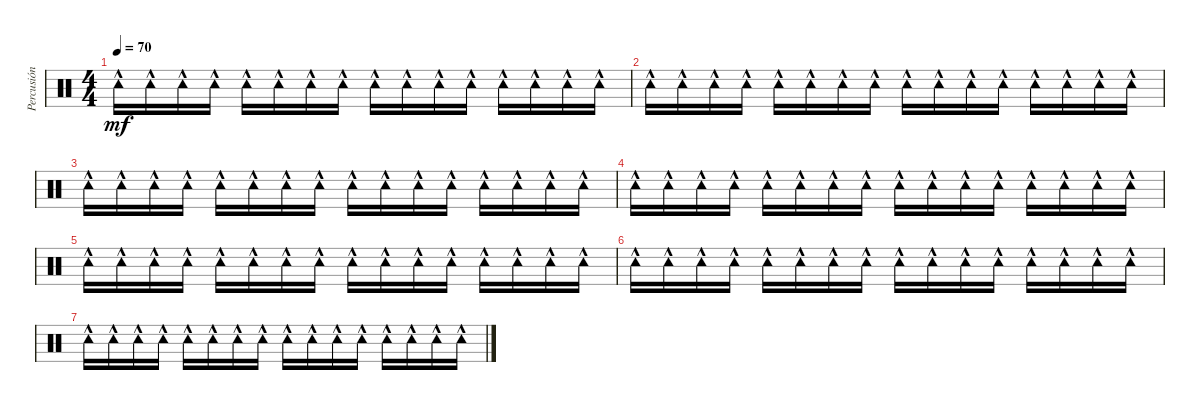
\track ("Percusión" "Percusión") {instrument percussion}
\staff {score}
\articulation defaults
\ts (4 4)
\tempo 70
\clef neutral
\ks c "Tambourine (hit)"{hac}.16{dy mf} "Tambourine (hit)"{hac}.16 "Tambourine (hit)"{hac}.16 "Tambourine (hit)"{hac}.16 "Tambourine (hit)"{hac}.16 "Tambourine (hit)"{hac}.16 "Tambourine (hit)"{hac}.16 "Tambourine (hit)"{hac}.16 "Tambourine (hit)"{hac}.16 "Tambourine (hit)"{hac}.16 "Tambourine (hit)"{hac}.16 "Tambourine (hit)"{hac}.16 "Tambourine (hit)"{hac}.16 "Tambourine (hit)"{hac}.16 "Tambourine (hit)"{hac}.16 "Tambourine (hit)"{hac}.16
|
"Tambourine (hit)"{hac}.16 "Tambourine (hit)"{hac}.16 "Tambourine (hit)"{hac}.16 "Tambourine (hit)"{hac}.16 "Tambourine (hit)"{hac}.16 "Tambourine (hit)"{hac}.16 "Tambourine (hit)"{hac}.16 "Tambourine (hit)"{hac}.16 "Tambourine (hit)"{hac}.16 "Tambourine (hit)"{hac}.16 "Tambourine (hit)"{hac}.16 "Tambourine (hit)"{hac}.16 "Tambourine (hit)"{hac}.16 "Tambourine (hit)"{hac}.16 "Tambourine (hit)"{hac}.16 "Tambourine (hit)"{hac}.16 |
"Tambourine (hit)"{hac}.16 "Tambourine (hit)"{hac}.16 "Tambourine (hit)"{hac}.16 "Tambourine (hit)"{hac}.16 "Tambourine (hit)"{hac}.16 "Tambourine (hit)"{hac}.16 "Tambourine (hit)"{hac}.16 "Tambourine (hit)"{hac}.16 "Tambourine (hit)"{hac}.16 "Tambourine (hit)"{hac}.16 "Tambourine (hit)"{hac}.16 "Tambourine (hit)"{hac}.16 "Tambourine (hit)"{hac}.16 "Tambourine (hit)"{hac}.16 "Tambourine (hit)"{hac}.16 "Tambourine (hit)"{hac}.16 |
"Tambourine (hit)"{hac}.16 "Tambourine (hit)"{hac}.16 "Tambourine (hit)"{hac}.16 "Tambourine (hit)"{hac}.16 "Tambourine (hit)"{hac}.16 "Tambourine (hit)"{hac}.16 "Tambourine (hit)"{hac}.16 "Tambourine (hit)"{hac}.16 "Tambourine (hit)"{hac}.16 "Tambourine (hit)"{hac}.16 "Tambourine (hit)"{hac}.16 "Tambourine (hit)"{hac}.16 "Tambourine (hit)"{hac}.16 "Tambourine (hit)"{hac}.16 "Tambourine (hit)"{hac}.16 "Tambourine (hit)"{hac}.16 |
"Tambourine (hit)"{hac}.16 "Tambourine (hit)"{hac}.16 "Tambourine (hit)"{hac}.16 "Tambourine (hit)"{hac}.16 "Tambourine (hit)"{hac}.16 "Tambourine (hit)"{hac}.16 "Tambourine (hit)"{hac}.16 "Tambourine (hit)"{hac}.16 "Tambourine (hit)"{hac}.16 "Tambourine (hit)"{hac}.16 "Tambourine (hit)"{hac}.16 "Tambourine (hit)"{hac}.16 "Tambourine (hit)"{hac}.16 "Tambourine (hit)"{hac}.16 "Tambourine (hit)"{hac}.16 "Tambourine (hit)"{hac}.16 |
"Tambourine (hit)"{hac}.16 "Tambourine (hit)"{hac}.16 "Tambourine (hit)"{hac}.16 "Tambourine (hit)"{hac}.16 "Tambourine (hit)"{hac}.16 "Tambourine (hit)"{hac}.16 "Tambourine (hit)"{hac}.16 "Tambourine (hit)"{hac}.16 "Tambourine (hit)"{hac}.16 "Tambourine (hit)"{hac}.16 "Tambourine (hit)"{hac}.16 "Tambourine (hit)"{hac}.16 "Tambourine (hit)"{hac}.16 "Tambourine (hit)"{hac}.16 "Tambourine (hit)"{hac}.16 "Tambourine (hit)"{hac}.16 |
"Tambourine (hit)"{hac}.16 "Tambourine (hit)"{hac}.16 "Tambourine (hit)"{hac}.16 "Tambourine (hit)"{hac}.16 "Tambourine (hit)"{hac}.16 "Tambourine (hit)"{hac}.16 "Tambourine (hit)"{hac}.16 "Tambourine (hit)"{hac}.16 "Tambourine (hit)"{hac}.16 "Tambourine (hit)"{hac}.16 "Tambourine (hit)"{hac}.16 "Tambourine (hit)"{hac}.16 "Tambourine (hit)"{hac}.16 "Tambourine (hit)"{hac}.16 "Tambourine (hit)"{hac}.16 "Tambourine (hit)"{hac}.16
